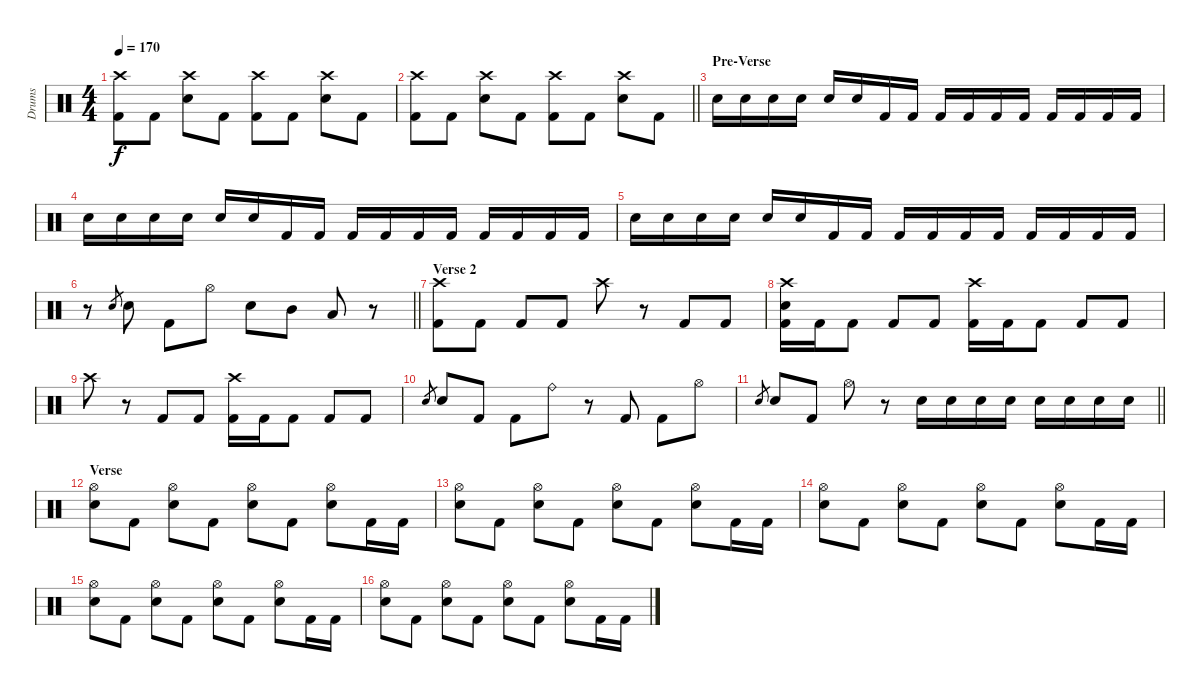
\track ("Drums" "Drums") {instrument percussion}
\staff {score}
\articulation defaults
\ts (4 4)
\tempo 170
\clef neutral
\ks c
("Crash high (hit)" "Kick (hit) 2").8{dy f} "Kick (hit) 2".8 ("Crash high (hit)" "Electric Snare (hit)").8 "Kick (hit) 2".8 ("Crash high (hit)" "Kick (hit) 2").8 "Kick (hit) 2".8 ("Crash high (hit)" "Electric Snare (hit)").8 "Kick (hit) 2".8 |
\barLineRight lightlight
("Crash high (hit)" "Kick (hit) 2").8 "Kick (hit) 2".8 ("Crash high (hit)" "Electric Snare (hit)").8 "Kick (hit) 2".8 ("Crash high (hit)" "Kick (hit) 2").8 "Kick (hit) 2".8 ("Crash high (hit)" "Electric Snare (hit)").8 "Kick (hit) 2".8 |
\section ("" "Pre-Verse")
"Electric Snare (hit)".16 "Electric Snare (hit)".16 "Electric Snare (hit)".16 "Electric Snare (hit)".16 "Electric Snare (hit)".16 "Electric Snare (hit)".16 "Kick (hit) 2".16 "Kick (hit) 2".16 "Kick (hit) 2".16 "Kick (hit) 2".16 "Kick (hit) 2".16 "Kick (hit) 2".16 "Kick (hit) 2".16 "Kick (hit) 2".16 "Kick (hit) 2".16 "Kick (hit) 2".16 |
"Electric Snare (hit)".16 "Electric Snare (hit)".16 "Electric Snare (hit)".16 "Electric Snare (hit)".16 "Electric Snare (hit)".16 "Electric Snare (hit)".16 "Kick (hit) 2".16 "Kick (hit) 2".16 "Kick (hit) 2".16 "Kick (hit) 2".16 "Kick (hit) 2".16 "Kick (hit) 2".16 "Kick (hit) 2".16 "Kick (hit) 2".16 "Kick (hit) 2".16 "Kick (hit) 2".16 |
"Electric Snare (hit)".16 "Electric Snare (hit)".16 "Electric Snare (hit)".16 "Electric Snare (hit)".16 "Electric Snare (hit)".16 "Electric Snare (hit)".16 "Kick (hit) 2".16 "Kick (hit) 2".16 "Kick (hit) 2".16 "Kick (hit) 2".16 "Kick (hit) 2".16 "Kick (hit) 2".16 "Kick (hit) 2".16 "Kick (hit) 2".16 "Kick (hit) 2".16 "Kick (hit) 2".16 |
\barLineRight lightlight
r.8 "Electric Snare (hit)".8{gr} "Electric Snare (hit)".8 "Kick (hit) 2".8 "Hi-Hat (open)".8 "Electric Snare (hit)".8 "Mid Tom (hit)".8 "Low Tom (hit)".8 r.8 |
\section ("" "Verse 2")
("Crash high (hit)" "Kick (hit) 2").8 "Kick (hit) 2".8 "Kick (hit) 2".8 "Kick (hit) 2".8 "Crash high (hit)".8 r.8 "Kick (hit) 2".8 "Kick (hit) 2".8 |
("Crash high (hit)" "Electric Snare (hit)" "Kick (hit) 2").16 "Kick (hit) 2".16 "Kick (hit) 2".8 "Kick (hit) 2".8 "Kick (hit) 2".8 ("Crash high (hit)" "Kick (hit) 2").16 "Kick (hit) 2".16 "Kick (hit) 2".8 "Kick (hit) 2".8 "Kick (hit) 2".8 |
"Crash high (hit)".8 r.8 "Kick (hit) 2".8 "Kick (hit) 2".8 ("Crash high (hit)" "Kick (hit) 2").16 "Kick (hit) 2".16 "Kick (hit) 2".8 "Kick (hit) 2".8 "Kick (hit) 2".8 |
"Electric Snare (hit)".8{gr} "Electric Snare (hit)".8 "Kick (hit) 2".8 "Kick (hit) 2".8 "Ride (bell)".8 r.8 "Kick (hit) 2".8 "Kick (hit) 2".8 "Hi-Hat (open)".8 |
\barLineRight lightlight "Electric Snare (hit)".8{gr} "Electric Snare (hit)".8 "Kick (hit) 2".8 "Hi-Hat (open)".8
r.8 "Electric Snare (hit)".16 "Electric Snare (hit)".16 "Electric Snare (hit)".16 "Electric Snare (hit)".16 "Electric Snare (hit)".16 "Electric Snare (hit)".16 "Electric Snare (hit)".16 "Electric Snare (hit)".16 |
\section ("" "Verse")
("Hi-Hat (open)" "Electric Snare (hit)").8 "Kick (hit) 2".8 ("Hi-Hat (open)" "Electric Snare (hit)").8 "Kick (hit) 2".8 ("Hi-Hat (open)" "Electric Snare (hit)").8 "Kick (hit) 2".8 ("Hi-Hat (open)" "Electric Snare (hit)").8 "Kick (hit) 2".16 "Kick (hit) 2".16 |
("Hi-Hat (open)" "Electric Snare (hit)").8 "Kick (hit) 2".8 ("Hi-Hat (open)" "Electric Snare (hit)").8 "Kick (hit) 2".8 ("Hi-Hat (open)" "Electric Snare (hit)").8 "Kick (hit) 2".8 ("Hi-Hat (open)" "Electric Snare (hit)").8 "Kick (hit) 2".16 "Kick (hit) 2".16 |
("Hi-Hat (open)" "Electric Snare (hit)").8 "Kick (hit) 2".8 ("Hi-Hat (open)" "Electric Snare (hit)").8 "Kick (hit) 2".8 ("Hi-Hat (open)" "Electric Snare (hit)").8 "Kick (hit) 2".8 ("Hi-Hat (open)" "Electric Snare (hit)").8 "Kick (hit) 2".16 "Kick (hit) 2".16 |
("Hi-Hat (open)" "Electric Snare (hit)").8 "Kick (hit) 2".8 ("Hi-Hat (open)" "Electric Snare (hit)").8 "Kick (hit) 2".8 ("Hi-Hat (open)" "Electric Snare (hit)").8 "Kick (hit) 2".8 ("Hi-Hat (open)" "Electric Snare (hit)").8 "Kick (hit) 2".16 "Kick (hit) 2".16 |
("Hi-Hat (open)" "Electric Snare (hit)").8 "Kick (hit) 2".8 ("Hi-Hat (open)" "Electric Snare (hit)").8 "Kick (hit) 2".8 ("Hi-Hat (open)" "Electric Snare (hit)").8 "Kick (hit) 2".8 ("Hi-Hat (open)" "Electric Snare (hit)").8 "Kick (hit) 2".16 "Kick (hit) 2".16
